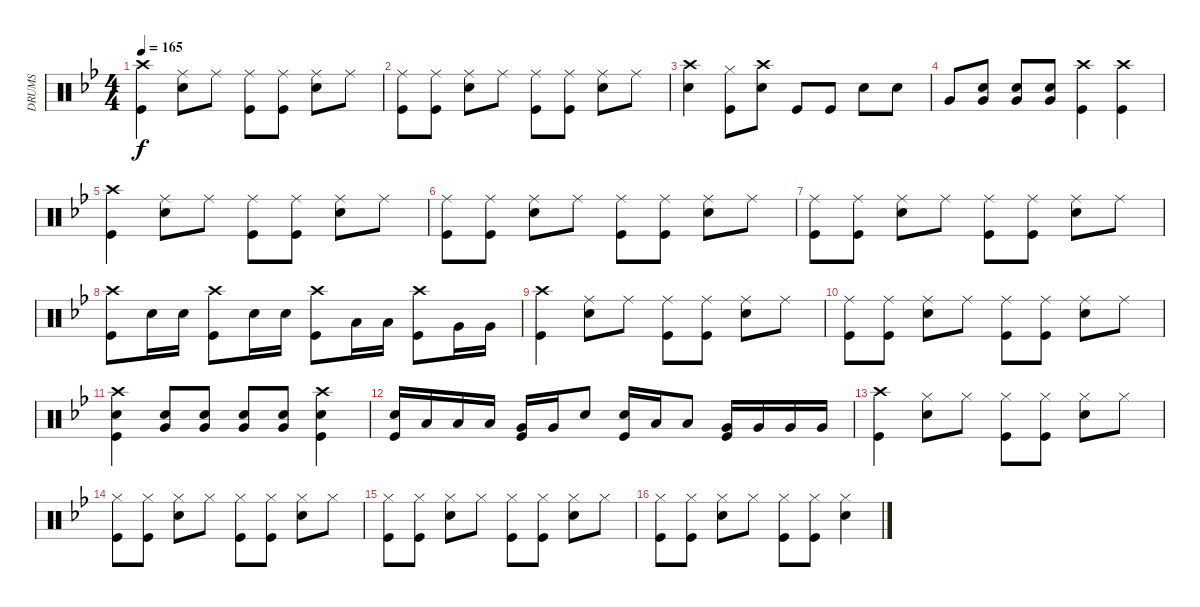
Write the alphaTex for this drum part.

\track ("DRUMS" "DRUMS") {instrument percussion}
\staff {score}
\articulation defaults
\ts (4 4)
\tempo 165
\clef neutral
\ks bb
("Crash high (hit)" "Kick (hit)").4{dy f} ("Ride (middle)" "Electric Snare (hit)").8 "Ride (middle)".8 ("Ride (middle)" "Kick (hit)").8 ("Ride (middle)" "Kick (hit)").8 ("Ride (middle)" "Electric Snare (hit)").8 "Ride (middle)".8 |
("Ride (middle)" "Kick (hit)").8 ("Ride (middle)" "Kick (hit)").8 ("Ride (middle)" "Electric Snare (hit)").8 "Ride (middle)".8 ("Ride (middle)" "Kick (hit)").8 ("Ride (middle)" "Kick (hit)").8 ("Ride (middle)" "Electric Snare (hit)").8 "Ride (middle)".8 |
("Crash high (hit)" "Electric Snare (hit)").4 ("Hi-Hat (closed)" "Kick (hit)").8 ("Crash high (hit)" "Electric Snare (hit)").8 "Kick (hit)".8 "Kick (hit)".8 "Electric Snare (hit)".8 "Electric Snare (hit)".8 |
"Very Low Tom (hit)".8 ("Electric Snare (hit)" "Very Low Tom (hit)").8 ("Electric Snare (hit)" "Very Low Tom (hit)").8 ("Electric Snare (hit)" "Very Low Tom (hit)").8 ("Crash high (hit)" "Kick (hit)").4 ("Crash high (hit)" "Kick (hit)").4 |
("Crash high (hit)" "Kick (hit)").4 ("Ride (middle)" "Electric Snare (hit)").8 "Ride (middle)".8 ("Ride (middle)" "Kick (hit)").8 ("Ride (middle)" "Kick (hit)").8 ("Ride (middle)" "Electric Snare (hit)").8 "Ride (middle)".8 |
("Ride (middle)" "Kick (hit)").8 ("Ride (middle)" "Kick (hit)").8 ("Ride (middle)" "Electric Snare (hit)").8 "Ride (middle)".8 ("Ride (middle)" "Kick (hit)").8 ("Ride (middle)" "Kick (hit)").8 ("Ride (middle)" "Electric Snare (hit)").8 "Ride (middle)".8 |
("Ride (middle)" "Kick (hit)").8 ("Ride (middle)" "Kick (hit)").8 ("Ride (middle)" "Electric Snare (hit)").8 "Ride (middle)".8 ("Ride (middle)" "Kick (hit)").8 ("Ride (middle)" "Kick (hit)").8 ("Ride (middle)" "Electric Snare (hit)").8 "Ride (middle)".8 |
("Crash high (hit)" "Kick (hit)").8 "Electric Snare (hit)".16 "Electric Snare (hit)".16 ("Crash high (hit)" "Kick (hit)").8 "Electric Snare (hit)".16 "Electric Snare (hit)".16 ("Crash high (hit)" "Kick (hit)").8 "Low Tom (hit)".16 "Low Tom (hit)".16 ("Crash high (hit)" "Kick (hit)").8 "Very Low Tom (hit)".16 "Very Low Tom (hit)".16 |
("Crash high (hit)" "Kick (hit)").4 ("Ride (middle)" "Electric Snare (hit)").8 "Ride (middle)".8 ("Ride (middle)" "Kick (hit)").8 ("Ride (middle)" "Kick (hit)").8 ("Ride (middle)" "Electric Snare (hit)").8 "Ride (middle)".8 |
("Ride (middle)" "Kick (hit)").8 ("Ride (middle)" "Kick (hit)").8 ("Ride (middle)" "Electric Snare (hit)").8 "Ride (middle)".8 ("Ride (middle)" "Kick (hit)").8 ("Ride (middle)" "Kick (hit)").8 ("Ride (middle)" "Electric Snare (hit)").8 "Ride (middle)".8 |
("Crash high (hit)" "Electric Snare (hit)" "Kick (hit)").4 ("Electric Snare (hit)" "Very Low Tom (hit)").8 ("Electric Snare (hit)" "Very Low Tom (hit)").8 ("Electric Snare (hit)" "Very Low Tom (hit)").8 ("Electric Snare (hit)" "Very Low Tom (hit)").8 ("Crash high (hit)" "Electric Snare (hit)" "Kick (hit)").4 |
("Electric Snare (hit)" "Kick (hit)").16 "Low Tom (hit)".16 "Low Tom (hit)".16 "Low Tom (hit)".16 ("Very Low Tom (hit)" "Kick (hit)").16 "Very Low Tom (hit)".16 "Electric Snare (hit)".8 ("Electric Snare (hit)" "Kick (hit)").16 "Low Tom (hit)".16 "Low Tom (hit)".8 ("Very Low Tom (hit)" "Kick (hit)").16 "Very Low Tom (hit)".16 "Very Low Tom (hit)".16 "Very Low Tom (hit)".16 |
("Crash high (hit)" "Kick (hit)").4 ("Hi-Hat (closed)" "Electric Snare (hit)").8 "Hi-Hat (closed)".8 ("Hi-Hat (closed)" "Kick (hit)").8 ("Hi-Hat (closed)" "Kick (hit)").8 ("Hi-Hat (closed)" "Electric Snare (hit)").8 "Hi-Hat (closed)".8 |
("Hi-Hat (closed)" "Kick (hit)").8 ("Hi-Hat (closed)" "Kick (hit)").8 ("Hi-Hat (closed)" "Electric Snare (hit)").8 "Hi-Hat (closed)".8 ("Hi-Hat (closed)" "Kick (hit)").8 ("Hi-Hat (closed)" "Kick (hit)").8 ("Hi-Hat (closed)" "Electric Snare (hit)").8 "Hi-Hat (closed)".8 |
("Hi-Hat (closed)" "Kick (hit)").8 ("Hi-Hat (closed)" "Kick (hit)").8 ("Hi-Hat (closed)" "Electric Snare (hit)").8 "Hi-Hat (closed)".8 ("Hi-Hat (closed)" "Kick (hit)").8 ("Hi-Hat (closed)" "Kick (hit)").8 ("Hi-Hat (closed)" "Electric Snare (hit)").8 "Hi-Hat (closed)".8 |
("Hi-Hat (closed)" "Kick (hit)").8 ("Hi-Hat (closed)" "Kick (hit)").8 ("Hi-Hat (closed)" "Electric Snare (hit)").8 "Hi-Hat (closed)".8 ("Hi-Hat (closed)" "Kick (hit)").8 ("Hi-Hat (closed)" "Kick (hit)").8 ("Hi-Hat (closed)" "Electric Snare (hit)").4
